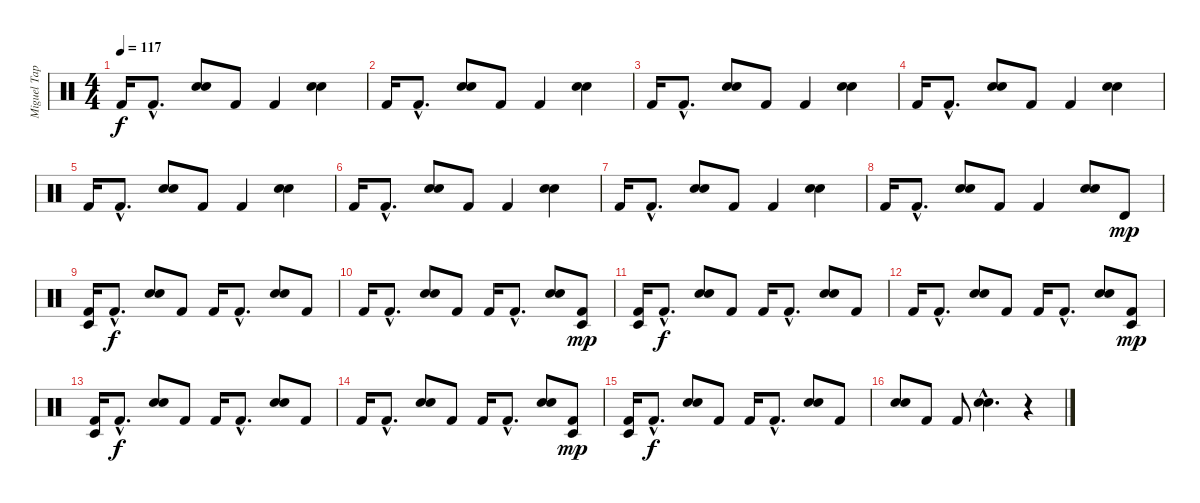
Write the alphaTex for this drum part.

\track ("Miguel Tapia" "Miguel Tap") {instrument percussion}
\staff {score}
\articulation defaults
\ts (4 4)
\tempo 117
\clef neutral
\ks c "Kick (hit) 2".16{dy f} "Kick (hit) 2"{hac}.8{d}
("Snare (hit) 2" "Electric Snare (hit)").8 "Kick (hit) 2".8 "Kick (hit) 2".4 ("Snare (hit) 2" "Electric Snare (hit)").4 |
"Kick (hit) 2".16 "Kick (hit) 2"{hac}.8{d} ("Snare (hit) 2" "Electric Snare (hit)").8 "Kick (hit) 2".8 "Kick (hit) 2".4 ("Snare (hit) 2" "Electric Snare (hit)").4 |
"Kick (hit) 2".16 "Kick (hit) 2"{hac}.8{d} ("Snare (hit) 2" "Electric Snare (hit)").8 "Kick (hit) 2".8 "Kick (hit) 2".4 ("Snare (hit) 2" "Electric Snare (hit)").4 |
"Kick (hit) 2".16 "Kick (hit) 2"{hac}.8{d} ("Snare (hit) 2" "Electric Snare (hit)").8 "Kick (hit) 2".8 "Kick (hit) 2".4 ("Snare (hit) 2" "Electric Snare (hit)").4 |
"Kick (hit) 2".16 "Kick (hit) 2"{hac}.8{d} ("Snare (hit) 2" "Electric Snare (hit)").8 "Kick (hit) 2".8 "Kick (hit) 2".4 ("Snare (hit) 2" "Electric Snare (hit)").4 |
"Kick (hit) 2".16 "Kick (hit) 2"{hac}.8{d} ("Snare (hit) 2" "Electric Snare (hit)").8 "Kick (hit) 2".8 "Kick (hit) 2".4 ("Snare (hit) 2" "Electric Snare (hit)").4 |
"Kick (hit) 2".16 "Kick (hit) 2"{hac}.8{d} ("Snare (hit) 2" "Electric Snare (hit)").8 "Kick (hit) 2".8 "Kick (hit) 2".4 ("Snare (hit) 2" "Electric Snare (hit)").4 |
"Kick (hit) 2".16 "Kick (hit) 2"{hac}.8{d} ("Snare (hit) 2" "Electric Snare (hit)").8 "Kick (hit) 2".8 "Kick (hit) 2".4 ("Snare (hit) 2" "Electric Snare (hit)").8 "Timbale high (hit)".8{dy mp} |
("Kick (hit) 2" "Timbale low (hit)").16 "Kick (hit) 2"{hac}.8{d dy f} ("Snare (hit) 2" "Electric Snare (hit)").8 "Kick (hit) 2".8 "Kick (hit) 2".16 "Kick (hit) 2"{hac}.8{d} ("Snare (hit) 2" "Electric Snare (hit)").8 "Kick (hit) 2".8 |
"Kick (hit) 2".16 "Kick (hit) 2"{hac}.8{d} ("Snare (hit) 2" "Electric Snare (hit)").8 "Kick (hit) 2".8 "Kick (hit) 2".16 "Kick (hit) 2"{hac}.8{d} ("Snare (hit) 2" "Electric Snare (hit)").8 ("Kick (hit) 2" "Timbale low (hit)").8{dy mp} |
("Kick (hit) 2" "Timbale low (hit)").16 "Kick (hit) 2"{hac}.8{d dy f} ("Snare (hit) 2" "Electric Snare (hit)").8 "Kick (hit) 2".8 "Kick (hit) 2".16 "Kick (hit) 2"{hac}.8{d} ("Snare (hit) 2" "Electric Snare (hit)").8 "Kick (hit) 2".8 |
"Kick (hit) 2".16 "Kick (hit) 2"{hac}.8{d} ("Snare (hit) 2" "Electric Snare (hit)").8 "Kick (hit) 2".8 "Kick (hit) 2".16 "Kick (hit) 2"{hac}.8{d} ("Snare (hit) 2" "Electric Snare (hit)").8 ("Kick (hit) 2" "Timbale low (hit)").8{dy mp} |
("Kick (hit) 2" "Timbale low (hit)").16 "Kick (hit) 2"{hac}.8{d dy f} ("Snare (hit) 2" "Electric Snare (hit)").8 "Kick (hit) 2".8 "Kick (hit) 2".16 "Kick (hit) 2"{hac}.8{d} ("Snare (hit) 2" "Electric Snare (hit)").8 "Kick (hit) 2".8 |
"Kick (hit) 2".16 "Kick (hit) 2"{hac}.8{d} ("Snare (hit) 2" "Electric Snare (hit)").8 "Kick (hit) 2".8 "Kick (hit) 2".16 "Kick (hit) 2"{hac}.8{d} ("Snare (hit) 2" "Electric Snare (hit)").8 ("Kick (hit) 2" "Timbale low (hit)").8{dy mp} |
("Kick (hit) 2" "Timbale low (hit)").16 "Kick (hit) 2"{hac}.8{d dy f} ("Snare (hit) 2" "Electric Snare (hit)").8 "Kick (hit) 2".8 "Kick (hit) 2".16 "Kick (hit) 2"{hac}.8{d} ("Snare (hit) 2" "Electric Snare (hit)").8 "Kick (hit) 2".8 |
("Electric Snare (hit)" "Snare (hit) 2").8 "Kick (hit) 2".8 "Kick (hit) 2".8 ("Electric Snare (hit)"{hac} "Snare (hit) 2"{hac}).4{d} r.4
